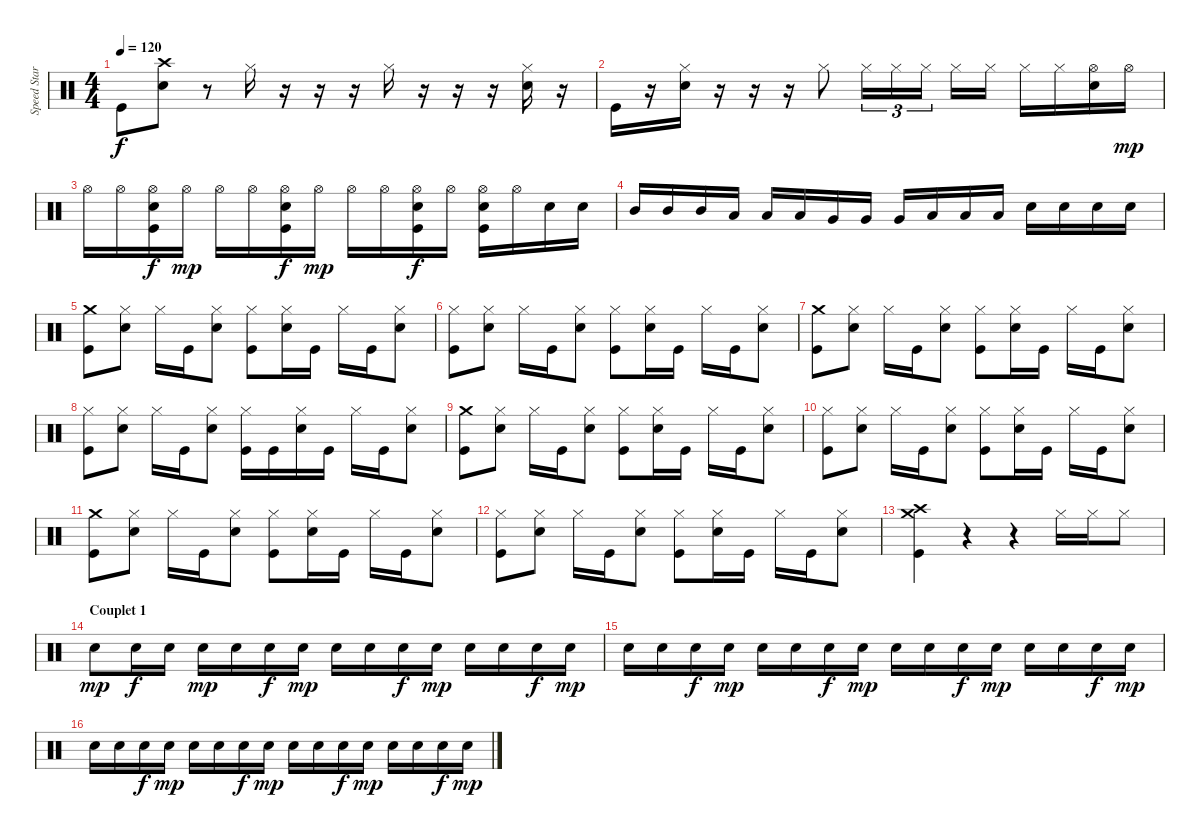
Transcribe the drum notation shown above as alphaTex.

\track ("Speed Star" "Speed Star") {instrument percussion}
\staff {score}
\articulation defaults
\ts (4 4)
\tempo 120
\clef neutral
\ks c "Kick (hit)".8{dy f}
("Snare (hit) 2" "Crash high (hit)").8 r.8 "Hi-Hat (closed)".16 r.16 r.16 r.16 "Hi-Hat (closed)".16 r.16 r.16 r.16 ("Hi-Hat (closed)" "Snare (hit) 2").16 r.16 |
"Kick (hit)".16 r.16 ("Snare (hit) 2" "Hi-Hat (closed)").16 r.16 r.16 r.16 "Hi-Hat (closed)".8 "Hi-Hat (closed)".16{tu (3 2)} "Hi-Hat (closed)".16{tu (3 2)} "Hi-Hat (closed)".16{tu (3 2)} "Hi-Hat (closed)".16 "Hi-Hat (closed)".16 "Hi-Hat (closed)".16 "Hi-Hat (closed)".16 ("Snare (hit) 2" "Hi-Hat (open)").16 "Hi-Hat (open)".16{dy mp} |
"Hi-Hat (open)".16 "Hi-Hat (open)".16 ("Kick (hit)" "Snare (hit) 2" "Hi-Hat (open)").16{dy f} "Hi-Hat (open)".16{dy mp} "Hi-Hat (open)".16 "Hi-Hat (open)".16 ("Kick (hit)" "Snare (hit) 2" "Hi-Hat (open)").16{dy f} "Hi-Hat (open)".16{dy mp} "Hi-Hat (open)".16 "Hi-Hat (open)".16 ("Kick (hit)" "Snare (hit) 2" "Hi-Hat (open)").16{dy f} "Hi-Hat (open)".16 ("Kick (hit)" "Snare (hit) 2" "Hi-Hat (open)").16 "Hi-Hat (open)".16 "Snare (hit) 2".16 "Snare (hit) 2".16 |
"Mid Tom (hit)".16 "Mid Tom (hit)".16 "Mid Tom (hit)".16 "Low Tom (hit)".16 "Low Tom (hit)".16 "Low Tom (hit)".16 "Very Low Tom (hit)".16 "Very Low Tom (hit)".16 "Very Low Tom (hit)".16 "Low Floor Tom (hit)".16 "Low Floor Tom (hit)".16 "Low Floor Tom (hit)".16 "Snare (hit) 2".16 "Snare (hit) 2".16 "Snare (hit) 2".16 "Snare (hit) 2".16 |
("Kick (hit)" "Crash medium (hit)").8 ("Snare (hit) 2" "Hi-Hat (closed)").8 "Hi-Hat (closed)".16 "Kick (hit)".16 ("Snare (hit) 2" "Hi-Hat (closed)").8 ("Kick (hit)" "Hi-Hat (closed)").8 ("Snare (hit) 2" "Hi-Hat (closed)").16 "Kick (hit)".16 "Hi-Hat (closed)".16 "Kick (hit)".16 ("Snare (hit) 2" "Hi-Hat (closed)").8 |
("Kick (hit)" "Hi-Hat (closed)").8 ("Snare (hit) 2" "Hi-Hat (closed)").8 "Hi-Hat (closed)".16 "Kick (hit)".16 ("Snare (hit) 2" "Hi-Hat (closed)").8 ("Kick (hit)" "Hi-Hat (closed)").8 ("Snare (hit) 2" "Hi-Hat (closed)").16 "Kick (hit)".16 "Hi-Hat (closed)".16 "Kick (hit)".16 ("Snare (hit) 2" "Hi-Hat (closed)").8 |
("Kick (hit)" "Crash medium (hit)").8 ("Snare (hit) 2" "Hi-Hat (closed)").8 "Hi-Hat (closed)".16 "Kick (hit)".16 ("Snare (hit) 2" "Hi-Hat (closed)").8 ("Kick (hit)" "Hi-Hat (closed)").8 ("Snare (hit) 2" "Hi-Hat (closed)").16 "Kick (hit)".16 "Hi-Hat (closed)".16 "Kick (hit)".16 ("Snare (hit) 2" "Hi-Hat (closed)").8 |
("Kick (hit)" "Hi-Hat (closed)").8 ("Snare (hit) 2" "Hi-Hat (closed)").8 "Hi-Hat (closed)".16 "Kick (hit)".16 ("Snare (hit) 2" "Hi-Hat (closed)").8 ("Kick (hit)" "Hi-Hat (closed)").16 "Kick (hit)".16 ("Snare (hit) 2" "Hi-Hat (closed)").16 "Kick (hit)".16 "Hi-Hat (closed)".16 "Kick (hit)".16 ("Snare (hit) 2" "Hi-Hat (closed)").8 |
("Kick (hit)" "Crash medium (hit)").8 ("Snare (hit) 2" "Hi-Hat (closed)").8 "Hi-Hat (closed)".16 "Kick (hit)".16 ("Snare (hit) 2" "Hi-Hat (closed)").8 ("Kick (hit)" "Hi-Hat (closed)").8 ("Snare (hit) 2" "Hi-Hat (closed)").16 "Kick (hit)".16 "Hi-Hat (closed)".16 "Kick (hit)".16 ("Snare (hit) 2" "Hi-Hat (closed)").8 |
("Kick (hit)" "Hi-Hat (closed)").8 ("Snare (hit) 2" "Hi-Hat (closed)").8 "Hi-Hat (closed)".16 "Kick (hit)".16 ("Snare (hit) 2" "Hi-Hat (closed)").8 ("Kick (hit)" "Hi-Hat (closed)").8 ("Snare (hit) 2" "Hi-Hat (closed)").16 "Kick (hit)".16 "Hi-Hat (closed)".16 "Kick (hit)".16 ("Snare (hit) 2" "Hi-Hat (closed)").8 |
("Kick (hit)" "Crash medium (hit)").8 ("Snare (hit) 2" "Hi-Hat (closed)").8 "Hi-Hat (closed)".16 "Kick (hit)".16 ("Snare (hit) 2" "Hi-Hat (closed)").8 ("Kick (hit)" "Hi-Hat (closed)").8 ("Snare (hit) 2" "Hi-Hat (closed)").16 "Kick (hit)".16 "Hi-Hat (closed)".16 "Kick (hit)".16 ("Snare (hit) 2" "Hi-Hat (closed)").8 |
("Kick (hit)" "Hi-Hat (closed)").8 ("Snare (hit) 2" "Hi-Hat (closed)").8 "Hi-Hat (closed)".16 "Kick (hit)".16 ("Snare (hit) 2" "Hi-Hat (closed)").8 ("Kick (hit)" "Hi-Hat (closed)").8 ("Snare (hit) 2" "Hi-Hat (closed)").16 "Kick (hit)".16 "Hi-Hat (closed)".16 "Kick (hit)".16 ("Snare (hit) 2" "Hi-Hat (closed)").8 |
("Kick (hit)" "Crash medium (hit)" "Crash high (hit)").4 r.4 r.4 "Hi-Hat (closed)".16 "Hi-Hat (closed)".16 "Hi-Hat (closed)".8 |
\section ("" "Couplet 1")
"Snare (hit) 2".8{dy mp} "Snare (hit) 2".16{dy f} "Snare (hit) 2".16 "Snare (hit) 2".16{dy mp} "Snare (hit) 2".16 "Snare (hit) 2".16{dy f} "Snare (hit) 2".16{dy mp} "Snare (hit) 2".16 "Snare (hit) 2".16 "Snare (hit) 2".16{dy f} "Snare (hit) 2".16{dy mp} "Snare (hit) 2".16 "Snare (hit) 2".16 "Snare (hit) 2".16{dy f} "Snare (hit) 2".16{dy mp} |
"Snare (hit) 2".16 "Snare (hit) 2".16 "Snare (hit) 2".16{dy f} "Snare (hit) 2".16{dy mp} "Snare (hit) 2".16 "Snare (hit) 2".16 "Snare (hit) 2".16{dy f} "Snare (hit) 2".16{dy mp} "Snare (hit) 2".16 "Snare (hit) 2".16 "Snare (hit) 2".16{dy f} "Snare (hit) 2".16{dy mp} "Snare (hit) 2".16 "Snare (hit) 2".16 "Snare (hit) 2".16{dy f} "Snare (hit) 2".16{dy mp} |
"Snare (hit) 2".16 "Snare (hit) 2".16 "Snare (hit) 2".16{dy f} "Snare (hit) 2".16{dy mp} "Snare (hit) 2".16 "Snare (hit) 2".16 "Snare (hit) 2".16{dy f} "Snare (hit) 2".16{dy mp} "Snare (hit) 2".16 "Snare (hit) 2".16 "Snare (hit) 2".16{dy f} "Snare (hit) 2".16{dy mp} "Snare (hit) 2".16 "Snare (hit) 2".16 "Snare (hit) 2".16{dy f} "Snare (hit) 2".16{dy mp}
